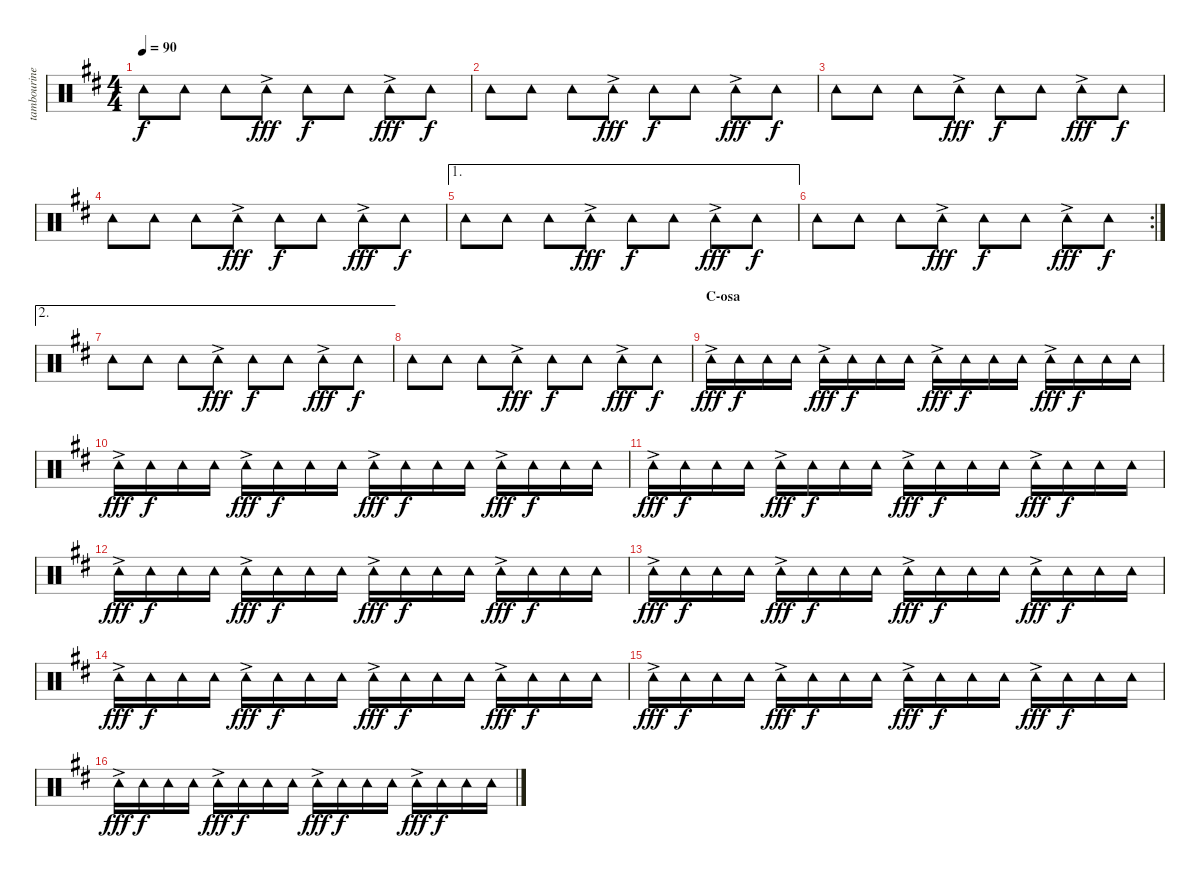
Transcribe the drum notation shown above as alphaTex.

\track ("tambourine" "tambourine") {instrument percussion}
\staff {score}
\articulation defaults
\ts (4 4)
\tempo 90
\clef neutral
\ks d "Tambourine (hit)".8{dy f} "Tambourine (hit)".8 "Tambourine (hit)".8 "Tambourine (hit)"{ac}.8{dy fff} "Tambourine (hit)".8{dy f} "Tambourine (hit)".8 "Tambourine (hit)"{ac}.8{dy fff} "Tambourine (hit)".8{dy f}
|
"Tambourine (hit)".8 "Tambourine (hit)".8 "Tambourine (hit)".8 "Tambourine (hit)"{ac}.8{dy fff} "Tambourine (hit)".8{dy f} "Tambourine (hit)".8 "Tambourine (hit)"{ac}.8{dy fff} "Tambourine (hit)".8{dy f} |
"Tambourine (hit)".8 "Tambourine (hit)".8 "Tambourine (hit)".8 "Tambourine (hit)"{ac}.8{dy fff} "Tambourine (hit)".8{dy f} "Tambourine (hit)".8 "Tambourine (hit)"{ac}.8{dy fff} "Tambourine (hit)".8{dy f} |
"Tambourine (hit)".8 "Tambourine (hit)".8 "Tambourine (hit)".8 "Tambourine (hit)"{ac}.8{dy fff} "Tambourine (hit)".8{dy f} "Tambourine (hit)".8 "Tambourine (hit)"{ac}.8{dy fff} "Tambourine (hit)".8{dy f} |
\ae 1 "Tambourine (hit)".8 "Tambourine (hit)".8 "Tambourine (hit)".8 "Tambourine (hit)"{ac}.8{dy fff} "Tambourine (hit)".8{dy f} "Tambourine (hit)".8 "Tambourine (hit)"{ac}.8{dy fff} "Tambourine (hit)".8{dy f}
|
\rc 2 "Tambourine (hit)".8 "Tambourine (hit)".8 "Tambourine (hit)".8 "Tambourine (hit)"{ac}.8{dy fff} "Tambourine (hit)".8{dy f} "Tambourine (hit)".8 "Tambourine (hit)"{ac}.8{dy fff} "Tambourine (hit)".8{dy f}
|
\ae 2 "Tambourine (hit)".8 "Tambourine (hit)".8 "Tambourine (hit)".8 "Tambourine (hit)"{ac}.8{dy fff} "Tambourine (hit)".8{dy f} "Tambourine (hit)".8 "Tambourine (hit)"{ac}.8{dy fff} "Tambourine (hit)".8{dy f}
|
"Tambourine (hit)".8 "Tambourine (hit)".8 "Tambourine (hit)".8 "Tambourine (hit)"{ac}.8{dy fff} "Tambourine (hit)".8{dy f} "Tambourine (hit)".8 "Tambourine (hit)"{ac}.8{dy fff} "Tambourine (hit)".8{dy f} |
\section ("" "C-osa")
"Tambourine (hit)"{ac}.16{dy fff} "Tambourine (hit)".16{dy f} "Tambourine (hit)".16 "Tambourine (hit)".16 "Tambourine (hit)"{ac}.16{dy fff} "Tambourine (hit)".16{dy f} "Tambourine (hit)".16 "Tambourine (hit)".16 "Tambourine (hit)"{ac}.16{dy fff} "Tambourine (hit)".16{dy f} "Tambourine (hit)".16 "Tambourine (hit)".16 "Tambourine (hit)"{ac}.16{dy fff} "Tambourine (hit)".16{dy f} "Tambourine (hit)".16 "Tambourine (hit)".16 |
"Tambourine (hit)"{ac}.16{dy fff} "Tambourine (hit)".16{dy f} "Tambourine (hit)".16 "Tambourine (hit)".16 "Tambourine (hit)"{ac}.16{dy fff} "Tambourine (hit)".16{dy f} "Tambourine (hit)".16 "Tambourine (hit)".16 "Tambourine (hit)"{ac}.16{dy fff} "Tambourine (hit)".16{dy f} "Tambourine (hit)".16 "Tambourine (hit)".16 "Tambourine (hit)"{ac}.16{dy fff} "Tambourine (hit)".16{dy f} "Tambourine (hit)".16 "Tambourine (hit)".16 |
"Tambourine (hit)"{ac}.16{dy fff} "Tambourine (hit)".16{dy f} "Tambourine (hit)".16 "Tambourine (hit)".16 "Tambourine (hit)"{ac}.16{dy fff} "Tambourine (hit)".16{dy f} "Tambourine (hit)".16 "Tambourine (hit)".16 "Tambourine (hit)"{ac}.16{dy fff} "Tambourine (hit)".16{dy f} "Tambourine (hit)".16 "Tambourine (hit)".16 "Tambourine (hit)"{ac}.16{dy fff} "Tambourine (hit)".16{dy f} "Tambourine (hit)".16 "Tambourine (hit)".16 |
"Tambourine (hit)"{ac}.16{dy fff} "Tambourine (hit)".16{dy f} "Tambourine (hit)".16 "Tambourine (hit)".16 "Tambourine (hit)"{ac}.16{dy fff} "Tambourine (hit)".16{dy f} "Tambourine (hit)".16 "Tambourine (hit)".16 "Tambourine (hit)"{ac}.16{dy fff} "Tambourine (hit)".16{dy f} "Tambourine (hit)".16 "Tambourine (hit)".16 "Tambourine (hit)"{ac}.16{dy fff} "Tambourine (hit)".16{dy f} "Tambourine (hit)".16 "Tambourine (hit)".16 |
"Tambourine (hit)"{ac}.16{dy fff} "Tambourine (hit)".16{dy f} "Tambourine (hit)".16 "Tambourine (hit)".16 "Tambourine (hit)"{ac}.16{dy fff} "Tambourine (hit)".16{dy f} "Tambourine (hit)".16 "Tambourine (hit)".16 "Tambourine (hit)"{ac}.16{dy fff} "Tambourine (hit)".16{dy f} "Tambourine (hit)".16 "Tambourine (hit)".16 "Tambourine (hit)"{ac}.16{dy fff} "Tambourine (hit)".16{dy f} "Tambourine (hit)".16 "Tambourine (hit)".16 |
"Tambourine (hit)"{ac}.16{dy fff} "Tambourine (hit)".16{dy f} "Tambourine (hit)".16 "Tambourine (hit)".16 "Tambourine (hit)"{ac}.16{dy fff} "Tambourine (hit)".16{dy f} "Tambourine (hit)".16 "Tambourine (hit)".16 "Tambourine (hit)"{ac}.16{dy fff} "Tambourine (hit)".16{dy f} "Tambourine (hit)".16 "Tambourine (hit)".16 "Tambourine (hit)"{ac}.16{dy fff} "Tambourine (hit)".16{dy f} "Tambourine (hit)".16 "Tambourine (hit)".16 |
"Tambourine (hit)"{ac}.16{dy fff} "Tambourine (hit)".16{dy f} "Tambourine (hit)".16 "Tambourine (hit)".16 "Tambourine (hit)"{ac}.16{dy fff} "Tambourine (hit)".16{dy f} "Tambourine (hit)".16 "Tambourine (hit)".16 "Tambourine (hit)"{ac}.16{dy fff} "Tambourine (hit)".16{dy f} "Tambourine (hit)".16 "Tambourine (hit)".16 "Tambourine (hit)"{ac}.16{dy fff} "Tambourine (hit)".16{dy f} "Tambourine (hit)".16 "Tambourine (hit)".16 |
"Tambourine (hit)"{ac}.16{dy fff} "Tambourine (hit)".16{dy f} "Tambourine (hit)".16 "Tambourine (hit)".16 "Tambourine (hit)"{ac}.16{dy fff} "Tambourine (hit)".16{dy f} "Tambourine (hit)".16 "Tambourine (hit)".16 "Tambourine (hit)"{ac}.16{dy fff} "Tambourine (hit)".16{dy f} "Tambourine (hit)".16 "Tambourine (hit)".16 "Tambourine (hit)"{ac}.16{dy fff} "Tambourine (hit)".16{dy f} "Tambourine (hit)".16 "Tambourine (hit)".16
